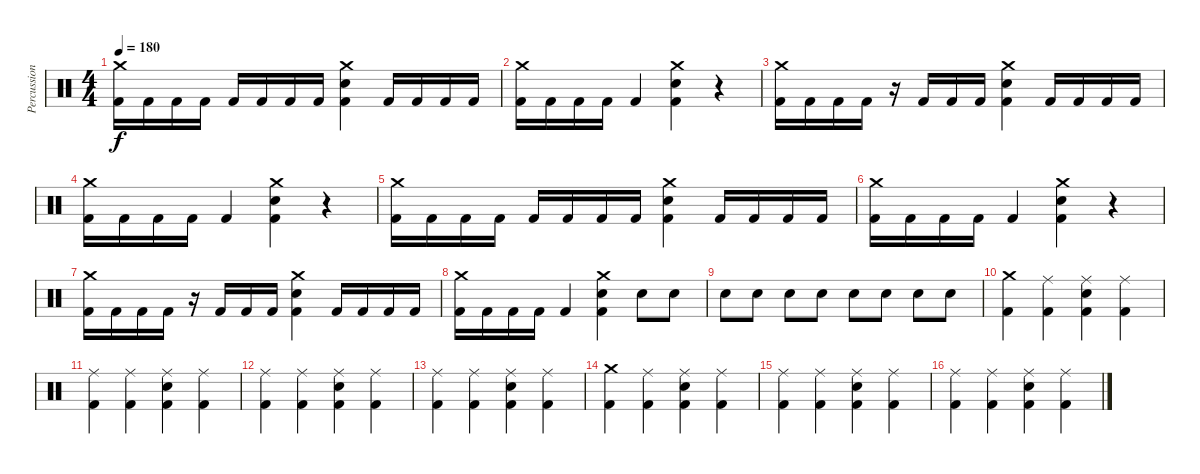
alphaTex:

\track ("Percussion" "Percussion") {instrument percussion}
\staff {score}
\articulation defaults
\ts (4 4)
\tempo 180
\clef neutral
\ks c
("Crash medium (hit)" "Kick (hit) 2").16{dy f} "Kick (hit) 2".16 "Kick (hit) 2".16 "Kick (hit) 2".16 "Kick (hit) 2".16 "Kick (hit) 2".16 "Kick (hit) 2".16 "Kick (hit) 2".16 ("Crash medium (hit)" "Electric Snare (hit)" "Kick (hit) 2").4 "Kick (hit) 2".16 "Kick (hit) 2".16 "Kick (hit) 2".16 "Kick (hit) 2".16 |
("Crash medium (hit)" "Kick (hit) 2").16 "Kick (hit) 2".16 "Kick (hit) 2".16 "Kick (hit) 2".16 "Kick (hit) 2".4 ("Crash medium (hit)" "Electric Snare (hit)" "Kick (hit) 2").4 r.4 |
("Crash medium (hit)" "Kick (hit) 2").16 "Kick (hit) 2".16 "Kick (hit) 2".16 "Kick (hit) 2".16 r.16 "Kick (hit) 2".16 "Kick (hit) 2".16 "Kick (hit) 2".16 ("Crash medium (hit)" "Electric Snare (hit)" "Kick (hit) 2").4 "Kick (hit) 2".16 "Kick (hit) 2".16 "Kick (hit) 2".16 "Kick (hit) 2".16 |
("Crash medium (hit)" "Kick (hit) 2").16 "Kick (hit) 2".16 "Kick (hit) 2".16 "Kick (hit) 2".16 "Kick (hit) 2".4 ("Crash medium (hit)" "Electric Snare (hit)" "Kick (hit) 2").4 r.4 |
("Crash medium (hit)" "Kick (hit) 2").16 "Kick (hit) 2".16 "Kick (hit) 2".16 "Kick (hit) 2".16 "Kick (hit) 2".16 "Kick (hit) 2".16 "Kick (hit) 2".16 "Kick (hit) 2".16 ("Crash medium (hit)" "Electric Snare (hit)" "Kick (hit) 2").4 "Kick (hit) 2".16 "Kick (hit) 2".16 "Kick (hit) 2".16 "Kick (hit) 2".16 |
("Crash medium (hit)" "Kick (hit) 2").16 "Kick (hit) 2".16 "Kick (hit) 2".16 "Kick (hit) 2".16 "Kick (hit) 2".4 ("Crash medium (hit)" "Electric Snare (hit)" "Kick (hit) 2").4 r.4 |
("Crash medium (hit)" "Kick (hit) 2").16 "Kick (hit) 2".16 "Kick (hit) 2".16 "Kick (hit) 2".16 r.16 "Kick (hit) 2".16 "Kick (hit) 2".16 "Kick (hit) 2".16 ("Crash medium (hit)" "Electric Snare (hit)" "Kick (hit) 2").4 "Kick (hit) 2".16 "Kick (hit) 2".16 "Kick (hit) 2".16 "Kick (hit) 2".16 |
("Crash medium (hit)" "Kick (hit) 2").16 "Kick (hit) 2".16 "Kick (hit) 2".16 "Kick (hit) 2".16 "Kick (hit) 2".4 ("Crash medium (hit)" "Electric Snare (hit)" "Kick (hit) 2").4 "Electric Snare (hit)".8 "Electric Snare (hit)".8 |
"Electric Snare (hit)".8 "Electric Snare (hit)".8 "Electric Snare (hit)".8 "Electric Snare (hit)".8 "Electric Snare (hit)".8 "Electric Snare (hit)".8 "Electric Snare (hit)".8 "Electric Snare (hit)".8 |
("Crash medium (hit)" "Kick (hit) 2").4 ("Ride (middle)" "Kick (hit) 2").4 ("Ride (middle)" "Electric Snare (hit)" "Kick (hit) 2").4 ("Ride (middle)" "Kick (hit) 2").4 |
("Ride (middle)" "Kick (hit) 2").4 ("Ride (middle)" "Kick (hit) 2").4 ("Ride (middle)" "Electric Snare (hit)" "Kick (hit) 2").4 ("Ride (middle)" "Kick (hit) 2").4 |
("Ride (middle)" "Kick (hit) 2").4 ("Ride (middle)" "Kick (hit) 2").4 ("Ride (middle)" "Electric Snare (hit)" "Kick (hit) 2").4 ("Ride (middle)" "Kick (hit) 2").4 |
("Ride (middle)" "Kick (hit) 2").4 ("Ride (middle)" "Kick (hit) 2").4 ("Ride (middle)" "Electric Snare (hit)" "Kick (hit) 2").4 ("Ride (middle)" "Kick (hit) 2").4 |
("Crash medium (hit)" "Kick (hit) 2").4 ("Ride (middle)" "Kick (hit) 2").4 ("Ride (middle)" "Electric Snare (hit)" "Kick (hit) 2").4 ("Ride (middle)" "Kick (hit) 2").4 |
("Ride (middle)" "Kick (hit) 2").4 ("Ride (middle)" "Kick (hit) 2").4 ("Ride (middle)" "Electric Snare (hit)" "Kick (hit) 2").4 ("Ride (middle)" "Kick (hit) 2").4 |
("Ride (middle)" "Kick (hit) 2").4 ("Ride (middle)" "Kick (hit) 2").4 ("Ride (middle)" "Electric Snare (hit)" "Kick (hit) 2").4 ("Ride (middle)" "Kick (hit) 2").4
